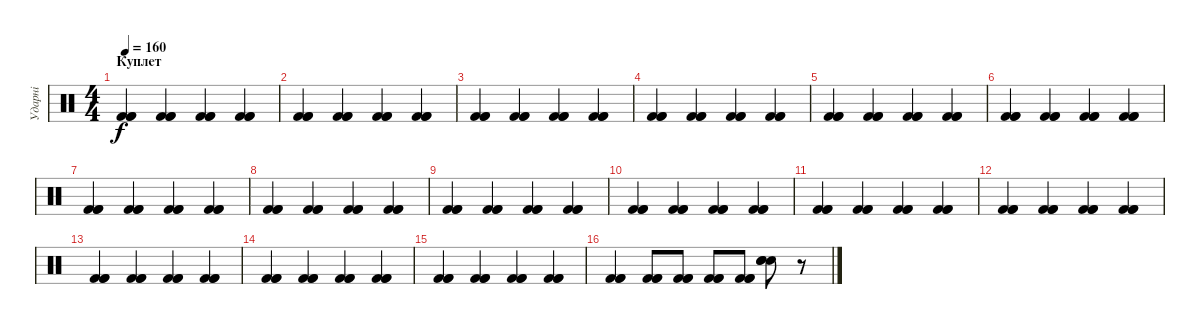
\track ("Ударні" "Ударні") {instrument percussion}
\staff {score}
\articulation defaults
\ts (4 4)
\section ("" "Куплет")
\tempo 160
\clef neutral
\ks c
("Kick (hit) 2" "Kick (hit) 2" "Kick (hit) 2").4{dy f} ("Kick (hit) 2" "Kick (hit) 2" "Kick (hit) 2").4 ("Kick (hit) 2" "Kick (hit) 2" "Kick (hit) 2").4 ("Kick (hit) 2" "Kick (hit) 2" "Kick (hit) 2").4 |
("Kick (hit) 2" "Kick (hit) 2" "Kick (hit) 2").4 ("Kick (hit) 2" "Kick (hit) 2" "Kick (hit) 2").4 ("Kick (hit) 2" "Kick (hit) 2" "Kick (hit) 2").4 ("Kick (hit) 2" "Kick (hit) 2" "Kick (hit) 2").4 |
("Kick (hit) 2" "Kick (hit) 2" "Kick (hit) 2").4 ("Kick (hit) 2" "Kick (hit) 2" "Kick (hit) 2").4 ("Kick (hit) 2" "Kick (hit) 2" "Kick (hit) 2").4 ("Kick (hit) 2" "Kick (hit) 2" "Kick (hit) 2").4 |
("Kick (hit) 2" "Kick (hit) 2" "Kick (hit) 2").4 ("Kick (hit) 2" "Kick (hit) 2" "Kick (hit) 2").4 ("Kick (hit) 2" "Kick (hit) 2" "Kick (hit) 2").4 ("Kick (hit) 2" "Kick (hit) 2" "Kick (hit) 2").4 |
("Kick (hit) 2" "Kick (hit) 2" "Kick (hit) 2").4 ("Kick (hit) 2" "Kick (hit) 2" "Kick (hit) 2").4 ("Kick (hit) 2" "Kick (hit) 2" "Kick (hit) 2").4 ("Kick (hit) 2" "Kick (hit) 2" "Kick (hit) 2").4 |
("Kick (hit) 2" "Kick (hit) 2" "Kick (hit) 2").4 ("Kick (hit) 2" "Kick (hit) 2" "Kick (hit) 2").4 ("Kick (hit) 2" "Kick (hit) 2" "Kick (hit) 2").4 ("Kick (hit) 2" "Kick (hit) 2" "Kick (hit) 2").4 |
("Kick (hit) 2" "Kick (hit) 2" "Kick (hit) 2").4 ("Kick (hit) 2" "Kick (hit) 2" "Kick (hit) 2").4 ("Kick (hit) 2" "Kick (hit) 2" "Kick (hit) 2").4 ("Kick (hit) 2" "Kick (hit) 2" "Kick (hit) 2").4 |
("Kick (hit) 2" "Kick (hit) 2" "Kick (hit) 2").4 ("Kick (hit) 2" "Kick (hit) 2" "Kick (hit) 2").4 ("Kick (hit) 2" "Kick (hit) 2" "Kick (hit) 2").4 ("Kick (hit) 2" "Kick (hit) 2" "Kick (hit) 2").4 |
("Kick (hit) 2" "Kick (hit) 2" "Kick (hit) 2").4 ("Kick (hit) 2" "Kick (hit) 2" "Kick (hit) 2").4 ("Kick (hit) 2" "Kick (hit) 2" "Kick (hit) 2").4 ("Kick (hit) 2" "Kick (hit) 2" "Kick (hit) 2").4 |
("Kick (hit) 2" "Kick (hit) 2" "Kick (hit) 2").4 ("Kick (hit) 2" "Kick (hit) 2" "Kick (hit) 2").4 ("Kick (hit) 2" "Kick (hit) 2" "Kick (hit) 2").4 ("Kick (hit) 2" "Kick (hit) 2" "Kick (hit) 2").4 |
("Kick (hit) 2" "Kick (hit) 2" "Kick (hit) 2").4 ("Kick (hit) 2" "Kick (hit) 2" "Kick (hit) 2").4 ("Kick (hit) 2" "Kick (hit) 2" "Kick (hit) 2").4 ("Kick (hit) 2" "Kick (hit) 2" "Kick (hit) 2").4 |
("Kick (hit) 2" "Kick (hit) 2" "Kick (hit) 2").4 ("Kick (hit) 2" "Kick (hit) 2" "Kick (hit) 2").4 ("Kick (hit) 2" "Kick (hit) 2" "Kick (hit) 2").4 ("Kick (hit) 2" "Kick (hit) 2" "Kick (hit) 2").4 |
("Kick (hit) 2" "Kick (hit) 2" "Kick (hit) 2").4 ("Kick (hit) 2" "Kick (hit) 2" "Kick (hit) 2").4 ("Kick (hit) 2" "Kick (hit) 2" "Kick (hit) 2").4 ("Kick (hit) 2" "Kick (hit) 2" "Kick (hit) 2").4 |
("Kick (hit) 2" "Kick (hit) 2" "Kick (hit) 2").4 ("Kick (hit) 2" "Kick (hit) 2" "Kick (hit) 2").4 ("Kick (hit) 2" "Kick (hit) 2" "Kick (hit) 2").4 ("Kick (hit) 2" "Kick (hit) 2" "Kick (hit) 2").4 |
("Kick (hit) 2" "Kick (hit) 2" "Kick (hit) 2").4 ("Kick (hit) 2" "Kick (hit) 2" "Kick (hit) 2").4 ("Kick (hit) 2" "Kick (hit) 2" "Kick (hit) 2").4 ("Kick (hit) 2" "Kick (hit) 2" "Kick (hit) 2").4 |
("Kick (hit) 2" "Kick (hit) 2" "Kick (hit) 2").4 ("Kick (hit) 2" "Kick (hit) 2" "Kick (hit) 2").8 ("Kick (hit) 2" "Kick (hit) 2" "Kick (hit) 2").8 ("Kick (hit) 2" "Kick (hit) 2" "Kick (hit) 2").8 ("Kick (hit) 2" "Kick (hit) 2" "Kick (hit) 2").8 ("Snare (hit) 2" "Snare (hit) 2" "Snare (hit) 2").8 r.8
